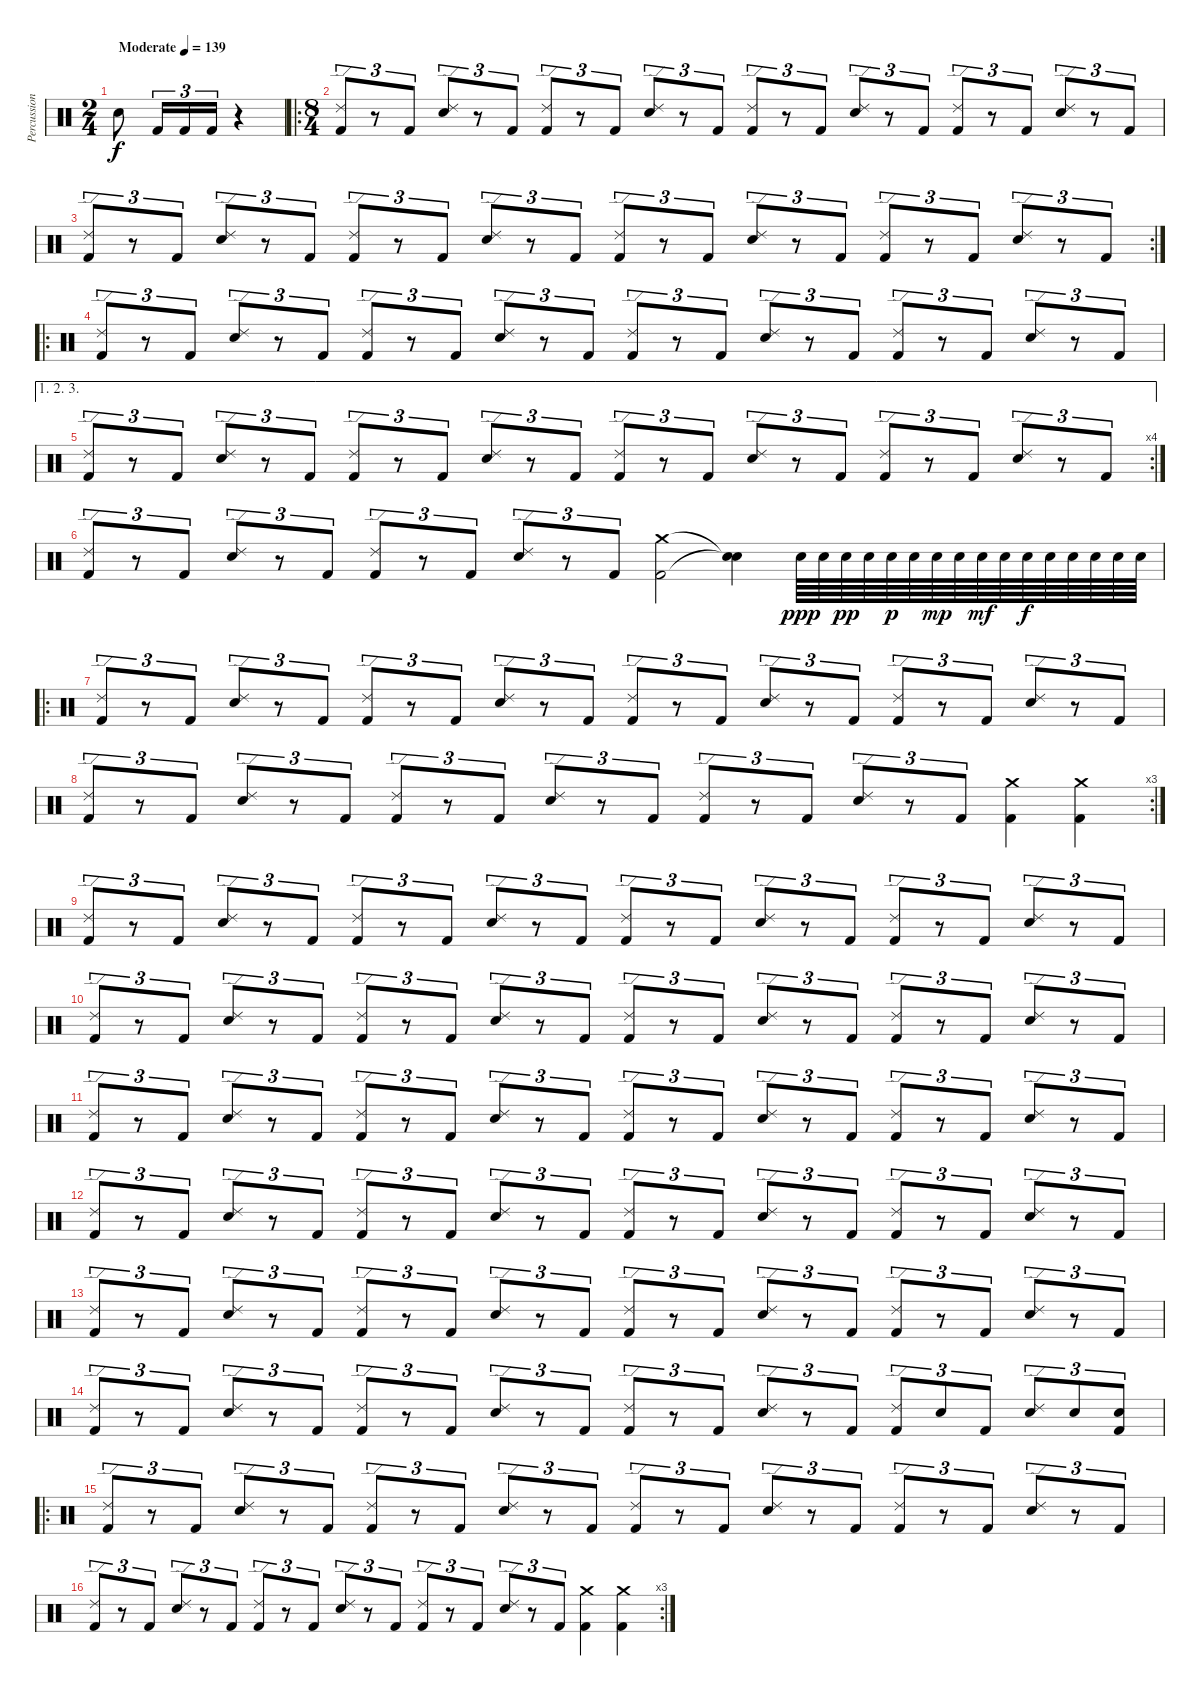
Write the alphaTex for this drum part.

\track ("Percussion" "Percussion") {instrument percussion}
\staff {score}
\articulation defaults
\ts (2 4)
\tempo (139 "Moderate")
\clef neutral
\ks c "Snare (hit) 2".8{dy f} "Kick (hit) 2".16{tu (3 2)} "Kick (hit) 2".16{tu (3 2)} "Kick (hit) 2".16{tu (3 2)}
r.4 |
\ro
\ts (8 4)
("Kick (hit) 2" "Ride (edge) 2").8{tu (3 2)} r.8{tu (3 2)} "Kick (hit) 2".8{tu (3 2)} ("Snare (hit) 2" "Ride (edge) 2").8{tu (3 2)} r.8{tu (3 2)} "Kick (hit) 2".8{tu (3 2)} ("Kick (hit) 2" "Ride (edge) 2").8{tu (3 2)} r.8{tu (3 2)} "Kick (hit) 2".8{tu (3 2)} ("Snare (hit) 2" "Ride (edge) 2").8{tu (3 2)} r.8{tu (3 2)} "Kick (hit) 2".8{tu (3 2)} ("Kick (hit) 2" "Ride (edge) 2").8{tu (3 2)} r.8{tu (3 2)} "Kick (hit) 2".8{tu (3 2)} ("Snare (hit) 2" "Ride (edge) 2").8{tu (3 2)} r.8{tu (3 2)} "Kick (hit) 2".8{tu (3 2)} ("Kick (hit) 2" "Ride (edge) 2").8{tu (3 2)} r.8{tu (3 2)} "Kick (hit) 2".8{tu (3 2)} ("Snare (hit) 2" "Ride (edge) 2").8{tu (3 2)} r.8{tu (3 2)} "Kick (hit) 2".8{tu (3 2)} |
\rc 2
("Kick (hit) 2" "Ride (edge) 2").8{tu (3 2)} r.8{tu (3 2)} "Kick (hit) 2".8{tu (3 2)} ("Snare (hit) 2" "Ride (edge) 2").8{tu (3 2)} r.8{tu (3 2)} "Kick (hit) 2".8{tu (3 2)} ("Kick (hit) 2" "Ride (edge) 2").8{tu (3 2)} r.8{tu (3 2)} "Kick (hit) 2".8{tu (3 2)} ("Snare (hit) 2" "Ride (edge) 2").8{tu (3 2)} r.8{tu (3 2)} "Kick (hit) 2".8{tu (3 2)} ("Kick (hit) 2" "Ride (edge) 2").8{tu (3 2)} r.8{tu (3 2)} "Kick (hit) 2".8{tu (3 2)} ("Snare (hit) 2" "Ride (edge) 2").8{tu (3 2)} r.8{tu (3 2)} "Kick (hit) 2".8{tu (3 2)} ("Kick (hit) 2" "Ride (edge) 2").8{tu (3 2)} r.8{tu (3 2)} "Kick (hit) 2".8{tu (3 2)} ("Snare (hit) 2" "Ride (edge) 2").8{tu (3 2)} r.8{tu (3 2)} "Kick (hit) 2".8{tu (3 2)} |
\ro
("Kick (hit) 2" "Ride (edge) 2").8{tu (3 2)} r.8{tu (3 2)} "Kick (hit) 2".8{tu (3 2)} ("Snare (hit) 2" "Ride (edge) 2").8{tu (3 2)} r.8{tu (3 2)} "Kick (hit) 2".8{tu (3 2)} ("Kick (hit) 2" "Ride (edge) 2").8{tu (3 2)} r.8{tu (3 2)} "Kick (hit) 2".8{tu (3 2)} ("Snare (hit) 2" "Ride (edge) 2").8{tu (3 2)} r.8{tu (3 2)} "Kick (hit) 2".8{tu (3 2)} ("Kick (hit) 2" "Ride (edge) 2").8{tu (3 2)} r.8{tu (3 2)} "Kick (hit) 2".8{tu (3 2)} ("Snare (hit) 2" "Ride (edge) 2").8{tu (3 2)} r.8{tu (3 2)} "Kick (hit) 2".8{tu (3 2)} ("Kick (hit) 2" "Ride (edge) 2").8{tu (3 2)} r.8{tu (3 2)} "Kick (hit) 2".8{tu (3 2)} ("Snare (hit) 2" "Ride (edge) 2").8{tu (3 2)} r.8{tu (3 2)} "Kick (hit) 2".8{tu (3 2)} |
\ae (1 2 3)
\rc 4
("Kick (hit) 2" "Ride (edge) 2").8{tu (3 2)} r.8{tu (3 2)} "Kick (hit) 2".8{tu (3 2)} ("Snare (hit) 2" "Ride (edge) 2").8{tu (3 2)} r.8{tu (3 2)} "Kick (hit) 2".8{tu (3 2)} ("Kick (hit) 2" "Ride (edge) 2").8{tu (3 2)} r.8{tu (3 2)} "Kick (hit) 2".8{tu (3 2)} ("Snare (hit) 2" "Ride (edge) 2").8{tu (3 2)} r.8{tu (3 2)} "Kick (hit) 2".8{tu (3 2)} ("Kick (hit) 2" "Ride (edge) 2").8{tu (3 2)} r.8{tu (3 2)} "Kick (hit) 2".8{tu (3 2)} ("Snare (hit) 2" "Ride (edge) 2").8{tu (3 2)} r.8{tu (3 2)} "Kick (hit) 2".8{tu (3 2)} ("Kick (hit) 2" "Ride (edge) 2").8{tu (3 2)} r.8{tu (3 2)} "Kick (hit) 2".8{tu (3 2)} ("Snare (hit) 2" "Ride (edge) 2").8{tu (3 2)} r.8{tu (3 2)} "Kick (hit) 2".8{tu (3 2)} |
("Kick (hit) 2" "Ride (edge) 2").8{tu (3 2)} r.8{tu (3 2)} "Kick (hit) 2".8{tu (3 2)} ("Snare (hit) 2" "Ride (edge) 2").8{tu (3 2)} r.8{tu (3 2)} "Kick (hit) 2".8{tu (3 2)} ("Kick (hit) 2" "Ride (edge) 2").8{tu (3 2)} r.8{tu (3 2)} "Kick (hit) 2".8{tu (3 2)} ("Snare (hit) 2" "Ride (edge) 2").8{tu (3 2)} r.8{tu (3 2)} "Kick (hit) 2".8{tu (3 2)} ("Kick (hit) 2" "Crash medium (hit)").2 ("Snare (hit)"{t} "Snare (hit)"{t}).4 "Snare (hit) 2".64{dy ppp} "Snare (hit) 2".64 "Snare (hit) 2".64{dy pp} "Snare (hit) 2".64 "Snare (hit) 2".64{dy p} "Snare (hit) 2".64 "Snare (hit) 2".64{dy mp} "Snare (hit) 2".64 "Snare (hit) 2".64{dy mf} "Snare (hit) 2".64 "Snare (hit) 2".64{dy f} "Snare (hit) 2".64 "Snare (hit) 2".64 "Snare (hit) 2".64 "Snare (hit) 2".64 "Snare (hit) 2".64 |
\ro
("Kick (hit) 2" "Ride (edge) 2").8{tu (3 2)} r.8{tu (3 2)} "Kick (hit) 2".8{tu (3 2)} ("Snare (hit) 2" "Ride (edge) 2").8{tu (3 2)} r.8{tu (3 2)} "Kick (hit) 2".8{tu (3 2)} ("Kick (hit) 2" "Ride (edge) 2").8{tu (3 2)} r.8{tu (3 2)} "Kick (hit) 2".8{tu (3 2)} ("Snare (hit) 2" "Ride (edge) 2").8{tu (3 2)} r.8{tu (3 2)} "Kick (hit) 2".8{tu (3 2)} ("Kick (hit) 2" "Ride (edge) 2").8{tu (3 2)} r.8{tu (3 2)} "Kick (hit) 2".8{tu (3 2)} ("Snare (hit) 2" "Ride (edge) 2").8{tu (3 2)} r.8{tu (3 2)} "Kick (hit) 2".8{tu (3 2)} ("Kick (hit) 2" "Ride (edge) 2").8{tu (3 2)} r.8{tu (3 2)} "Kick (hit) 2".8{tu (3 2)} ("Snare (hit) 2" "Ride (edge) 2").8{tu (3 2)} r.8{tu (3 2)} "Kick (hit) 2".8{tu (3 2)} |
\rc 3
("Kick (hit) 2" "Ride (edge) 2").8{tu (3 2)} r.8{tu (3 2)} "Kick (hit) 2".8{tu (3 2)} ("Snare (hit) 2" "Ride (edge) 2").8{tu (3 2)} r.8{tu (3 2)} "Kick (hit) 2".8{tu (3 2)} ("Kick (hit) 2" "Ride (edge) 2").8{tu (3 2)} r.8{tu (3 2)} "Kick (hit) 2".8{tu (3 2)} ("Snare (hit) 2" "Ride (edge) 2").8{tu (3 2)} r.8{tu (3 2)} "Kick (hit) 2".8{tu (3 2)} ("Kick (hit) 2" "Ride (edge) 2").8{tu (3 2)} r.8{tu (3 2)} "Kick (hit) 2".8{tu (3 2)} ("Snare (hit) 2" "Ride (edge) 2").8{tu (3 2)} r.8{tu (3 2)} "Kick (hit) 2".8{tu (3 2)} ("Kick (hit) 2" "Crash medium (hit)").4 ("Kick (hit) 2" "Crash medium (hit)").4 |
("Kick (hit) 2" "Ride (edge) 2").8{tu (3 2)} r.8{tu (3 2)} "Kick (hit) 2".8{tu (3 2)} ("Snare (hit) 2" "Ride (edge) 2").8{tu (3 2)} r.8{tu (3 2)} "Kick (hit) 2".8{tu (3 2)} ("Kick (hit) 2" "Ride (edge) 2").8{tu (3 2)} r.8{tu (3 2)} "Kick (hit) 2".8{tu (3 2)} ("Snare (hit) 2" "Ride (edge) 2").8{tu (3 2)} r.8{tu (3 2)} "Kick (hit) 2".8{tu (3 2)} ("Kick (hit) 2" "Ride (edge) 2").8{tu (3 2)} r.8{tu (3 2)} "Kick (hit) 2".8{tu (3 2)} ("Snare (hit) 2" "Ride (edge) 2").8{tu (3 2)} r.8{tu (3 2)} "Kick (hit) 2".8{tu (3 2)} ("Kick (hit) 2" "Ride (edge) 2").8{tu (3 2)} r.8{tu (3 2)} "Kick (hit) 2".8{tu (3 2)} ("Snare (hit) 2" "Ride (edge) 2").8{tu (3 2)} r.8{tu (3 2)} "Kick (hit) 2".8{tu (3 2)} |
("Kick (hit) 2" "Ride (edge) 2").8{tu (3 2)} r.8{tu (3 2)} "Kick (hit) 2".8{tu (3 2)} ("Snare (hit) 2" "Ride (edge) 2").8{tu (3 2)} r.8{tu (3 2)} "Kick (hit) 2".8{tu (3 2)} ("Kick (hit) 2" "Ride (edge) 2").8{tu (3 2)} r.8{tu (3 2)} "Kick (hit) 2".8{tu (3 2)} ("Snare (hit) 2" "Ride (edge) 2").8{tu (3 2)} r.8{tu (3 2)} "Kick (hit) 2".8{tu (3 2)} ("Kick (hit) 2" "Ride (edge) 2").8{tu (3 2)} r.8{tu (3 2)} "Kick (hit) 2".8{tu (3 2)} ("Snare (hit) 2" "Ride (edge) 2").8{tu (3 2)} r.8{tu (3 2)} "Kick (hit) 2".8{tu (3 2)} ("Kick (hit) 2" "Ride (edge) 2").8{tu (3 2)} r.8{tu (3 2)} "Kick (hit) 2".8{tu (3 2)} ("Snare (hit) 2" "Ride (edge) 2").8{tu (3 2)} r.8{tu (3 2)} "Kick (hit) 2".8{tu (3 2)} |
("Kick (hit) 2" "Ride (edge) 2").8{tu (3 2)} r.8{tu (3 2)} "Kick (hit) 2".8{tu (3 2)} ("Snare (hit) 2" "Ride (edge) 2").8{tu (3 2)} r.8{tu (3 2)} "Kick (hit) 2".8{tu (3 2)} ("Kick (hit) 2" "Ride (edge) 2").8{tu (3 2)} r.8{tu (3 2)} "Kick (hit) 2".8{tu (3 2)} ("Snare (hit) 2" "Ride (edge) 2").8{tu (3 2)} r.8{tu (3 2)} "Kick (hit) 2".8{tu (3 2)} ("Kick (hit) 2" "Ride (edge) 2").8{tu (3 2)} r.8{tu (3 2)} "Kick (hit) 2".8{tu (3 2)} ("Snare (hit) 2" "Ride (edge) 2").8{tu (3 2)} r.8{tu (3 2)} "Kick (hit) 2".8{tu (3 2)} ("Kick (hit) 2" "Ride (edge) 2").8{tu (3 2)} r.8{tu (3 2)} "Kick (hit) 2".8{tu (3 2)} ("Snare (hit) 2" "Ride (edge) 2").8{tu (3 2)} r.8{tu (3 2)} "Kick (hit) 2".8{tu (3 2)} |
("Kick (hit) 2" "Ride (edge) 2").8{tu (3 2)} r.8{tu (3 2)} "Kick (hit) 2".8{tu (3 2)} ("Snare (hit) 2" "Ride (edge) 2").8{tu (3 2)} r.8{tu (3 2)} "Kick (hit) 2".8{tu (3 2)} ("Kick (hit) 2" "Ride (edge) 2").8{tu (3 2)} r.8{tu (3 2)} "Kick (hit) 2".8{tu (3 2)} ("Snare (hit) 2" "Ride (edge) 2").8{tu (3 2)} r.8{tu (3 2)} "Kick (hit) 2".8{tu (3 2)} ("Kick (hit) 2" "Ride (edge) 2").8{tu (3 2)} r.8{tu (3 2)} "Kick (hit) 2".8{tu (3 2)} ("Snare (hit) 2" "Ride (edge) 2").8{tu (3 2)} r.8{tu (3 2)} "Kick (hit) 2".8{tu (3 2)} ("Kick (hit) 2" "Ride (edge) 2").8{tu (3 2)} r.8{tu (3 2)} "Kick (hit) 2".8{tu (3 2)} ("Snare (hit) 2" "Ride (edge) 2").8{tu (3 2)} r.8{tu (3 2)} "Kick (hit) 2".8{tu (3 2)} |
("Kick (hit) 2" "Ride (edge) 2").8{tu (3 2)} r.8{tu (3 2)} "Kick (hit) 2".8{tu (3 2)} ("Snare (hit) 2" "Ride (edge) 2").8{tu (3 2)} r.8{tu (3 2)} "Kick (hit) 2".8{tu (3 2)} ("Kick (hit) 2" "Ride (edge) 2").8{tu (3 2)} r.8{tu (3 2)} "Kick (hit) 2".8{tu (3 2)} ("Snare (hit) 2" "Ride (edge) 2").8{tu (3 2)} r.8{tu (3 2)} "Kick (hit) 2".8{tu (3 2)} ("Kick (hit) 2" "Ride (edge) 2").8{tu (3 2)} r.8{tu (3 2)} "Kick (hit) 2".8{tu (3 2)} ("Snare (hit) 2" "Ride (edge) 2").8{tu (3 2)} r.8{tu (3 2)} "Kick (hit) 2".8{tu (3 2)} ("Kick (hit) 2" "Ride (edge) 2").8{tu (3 2)} r.8{tu (3 2)} "Kick (hit) 2".8{tu (3 2)} ("Snare (hit) 2" "Ride (edge) 2").8{tu (3 2)} r.8{tu (3 2)} "Kick (hit) 2".8{tu (3 2)} |
("Kick (hit) 2" "Ride (edge) 2").8{tu (3 2)} r.8{tu (3 2)} "Kick (hit) 2".8{tu (3 2)} ("Snare (hit) 2" "Ride (edge) 2").8{tu (3 2)} r.8{tu (3 2)} "Kick (hit) 2".8{tu (3 2)} ("Kick (hit) 2" "Ride (edge) 2").8{tu (3 2)} r.8{tu (3 2)} "Kick (hit) 2".8{tu (3 2)} ("Snare (hit) 2" "Ride (edge) 2").8{tu (3 2)} r.8{tu (3 2)} "Kick (hit) 2".8{tu (3 2)} ("Kick (hit) 2" "Ride (edge) 2").8{tu (3 2)} r.8{tu (3 2)} "Kick (hit) 2".8{tu (3 2)} ("Snare (hit) 2" "Ride (edge) 2").8{tu (3 2)} r.8{tu (3 2)} "Kick (hit) 2".8{tu (3 2)} ("Kick (hit) 2" "Ride (edge) 2").8{tu (3 2)} "Snare (hit) 2".8{tu (3 2)} "Kick (hit) 2".8{tu (3 2)} ("Snare (hit) 2" "Ride (edge) 2").8{tu (3 2)} "Snare (hit) 2".8{tu (3 2)} ("Kick (hit) 2" "Snare (hit) 2").8{tu (3 2)} |
\ro
("Kick (hit) 2" "Ride (edge) 2").8{tu (3 2)} r.8{tu (3 2)} "Kick (hit) 2".8{tu (3 2)} ("Snare (hit) 2" "Ride (edge) 2").8{tu (3 2)} r.8{tu (3 2)} "Kick (hit) 2".8{tu (3 2)} ("Kick (hit) 2" "Ride (edge) 2").8{tu (3 2)} r.8{tu (3 2)} "Kick (hit) 2".8{tu (3 2)} ("Snare (hit) 2" "Ride (edge) 2").8{tu (3 2)} r.8{tu (3 2)} "Kick (hit) 2".8{tu (3 2)} ("Kick (hit) 2" "Ride (edge) 2").8{tu (3 2)} r.8{tu (3 2)} "Kick (hit) 2".8{tu (3 2)} ("Snare (hit) 2" "Ride (edge) 2").8{tu (3 2)} r.8{tu (3 2)} "Kick (hit) 2".8{tu (3 2)} ("Kick (hit) 2" "Ride (edge) 2").8{tu (3 2)} r.8{tu (3 2)} "Kick (hit) 2".8{tu (3 2)} ("Snare (hit) 2" "Ride (edge) 2").8{tu (3 2)} r.8{tu (3 2)} "Kick (hit) 2".8{tu (3 2)} |
\rc 3
("Kick (hit) 2" "Ride (edge) 2").8{tu (3 2)} r.8{tu (3 2)} "Kick (hit) 2".8{tu (3 2)} ("Snare (hit) 2" "Ride (edge) 2").8{tu (3 2)} r.8{tu (3 2)} "Kick (hit) 2".8{tu (3 2)} ("Kick (hit) 2" "Ride (edge) 2").8{tu (3 2)} r.8{tu (3 2)} "Kick (hit) 2".8{tu (3 2)} ("Snare (hit) 2" "Ride (edge) 2").8{tu (3 2)} r.8{tu (3 2)} "Kick (hit) 2".8{tu (3 2)} ("Kick (hit) 2" "Ride (edge) 2").8{tu (3 2)} r.8{tu (3 2)} "Kick (hit) 2".8{tu (3 2)} ("Snare (hit) 2" "Ride (edge) 2").8{tu (3 2)} r.8{tu (3 2)} "Kick (hit) 2".8{tu (3 2)} ("Kick (hit) 2" "Crash medium (hit)").4 ("Kick (hit) 2" "Crash medium (hit)").4
